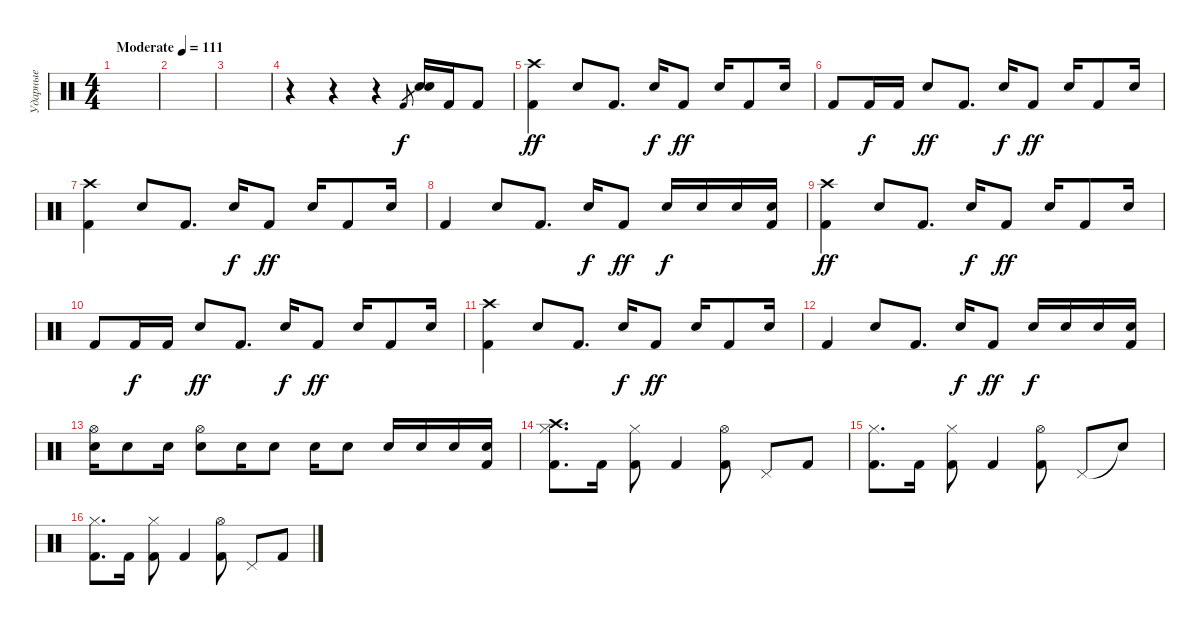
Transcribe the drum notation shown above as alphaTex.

\track ("Ударные" "Ударные") {instrument percussion}
\staff {score}
\articulation defaults
\ts (4 4)
\tempo (111 "Moderate")
\clef neutral
\ks c
|
|
|
r.4 r.4 r.4 "Kick (hit) 2".8{gr} ("Snare (hit) 2" "Snare (hit) 2").16 "Kick (hit) 2".16 "Kick (hit) 2".8 |
("Crash high (hit)" "Kick (hit) 2").4{dy ff} "Snare (hit) 2".8 "Kick (hit) 2".8{d} "Snare (hit) 2".16{dy f} "Kick (hit) 2".8{dy ff} "Snare (hit) 2".16 "Kick (hit) 2".8 "Snare (hit) 2".16 |
"Kick (hit) 2".8 "Kick (hit) 2".16{dy f} "Kick (hit) 2".16 "Snare (hit) 2".8{dy ff} "Kick (hit) 2".8{d} "Snare (hit) 2".16{dy f} "Kick (hit) 2".8{dy ff} "Snare (hit) 2".16 "Kick (hit) 2".8 "Snare (hit) 2".16 |
("Crash high (hit)" "Kick (hit) 2").4 "Snare (hit) 2".8 "Kick (hit) 2".8{d} "Snare (hit) 2".16{dy f} "Kick (hit) 2".8{dy ff} "Snare (hit) 2".16 "Kick (hit) 2".8 "Snare (hit) 2".16 |
"Kick (hit) 2".4 "Snare (hit) 2".8 "Kick (hit) 2".8{d} "Snare (hit) 2".16{dy f} "Kick (hit) 2".8{dy ff} "Electric Snare (hit)".16{dy f} "Electric Snare (hit)".16 "Snare (hit) 2".16 ("Snare (hit) 2" "Kick (hit) 2").16 |
("Crash high (hit)" "Kick (hit) 2").4{dy ff} "Snare (hit) 2".8 "Kick (hit) 2".8{d} "Snare (hit) 2".16{dy f} "Kick (hit) 2".8{dy ff} "Snare (hit) 2".16 "Kick (hit) 2".8 "Snare (hit) 2".16 |
"Kick (hit) 2".8 "Kick (hit) 2".16{dy f} "Kick (hit) 2".16 "Snare (hit) 2".8{dy ff} "Kick (hit) 2".8{d} "Snare (hit) 2".16{dy f} "Kick (hit) 2".8{dy ff} "Snare (hit) 2".16 "Kick (hit) 2".8 "Snare (hit) 2".16 |
("Crash high (hit)" "Kick (hit) 2").4 "Snare (hit) 2".8 "Kick (hit) 2".8{d} "Snare (hit) 2".16{dy f} "Kick (hit) 2".8{dy ff} "Snare (hit) 2".16 "Kick (hit) 2".8 "Snare (hit) 2".16 |
"Kick (hit) 2".4 "Snare (hit) 2".8 "Kick (hit) 2".8{d} "Snare (hit) 2".16{dy f} "Kick (hit) 2".8{dy ff} "Electric Snare (hit)".16{dy f} "Electric Snare (hit)".16 "Snare (hit) 2".16 ("Snare (hit) 2" "Kick (hit) 2").16 |
("Electric Snare (hit)" "Hi-Hat (open)").16 "Electric Snare (hit)".8 "Electric Snare (hit)".16 ("Hi-Hat (open)" "Electric Snare (hit)").8 "Electric Snare (hit)".16 "Electric Snare (hit)".8 "Electric Snare (hit)".16 "Electric Snare (hit)".8 "Electric Snare (hit)".16 "Electric Snare (hit)".16 "Snare (hit) 2".16 ("Snare (hit) 2" "Kick (hit) 2").16 |
("Crash high (hit)" "Kick (hit) 2" "Hi-Hat (closed)").8{d} "Kick (hit) 2".16 ("Kick (hit) 2" "Hi-Hat (closed)").8 "Kick (hit) 2".4 ("Kick (hit) 2" "Hi-Hat (open)").8 "Pedal Hi-Hat (hit)".8 "Kick (hit) 2".8 |
("Kick (hit) 2" "Hi-Hat (closed)").8{d} "Kick (hit) 2".16 ("Kick (hit) 2" "Hi-Hat (closed)").8 "Kick (hit) 2".4 ("Kick (hit) 2" "Hi-Hat (open)").8 "Pedal Hi-Hat (hit)".8 "Snare (hit)"{t}.8 |
("Kick (hit) 2" "Hi-Hat (closed)").8{d} "Kick (hit) 2".16 ("Kick (hit) 2" "Hi-Hat (closed)").8 "Kick (hit) 2".4 ("Kick (hit) 2" "Hi-Hat (open)").8 "Pedal Hi-Hat (hit)".8 "Kick (hit) 2".8
